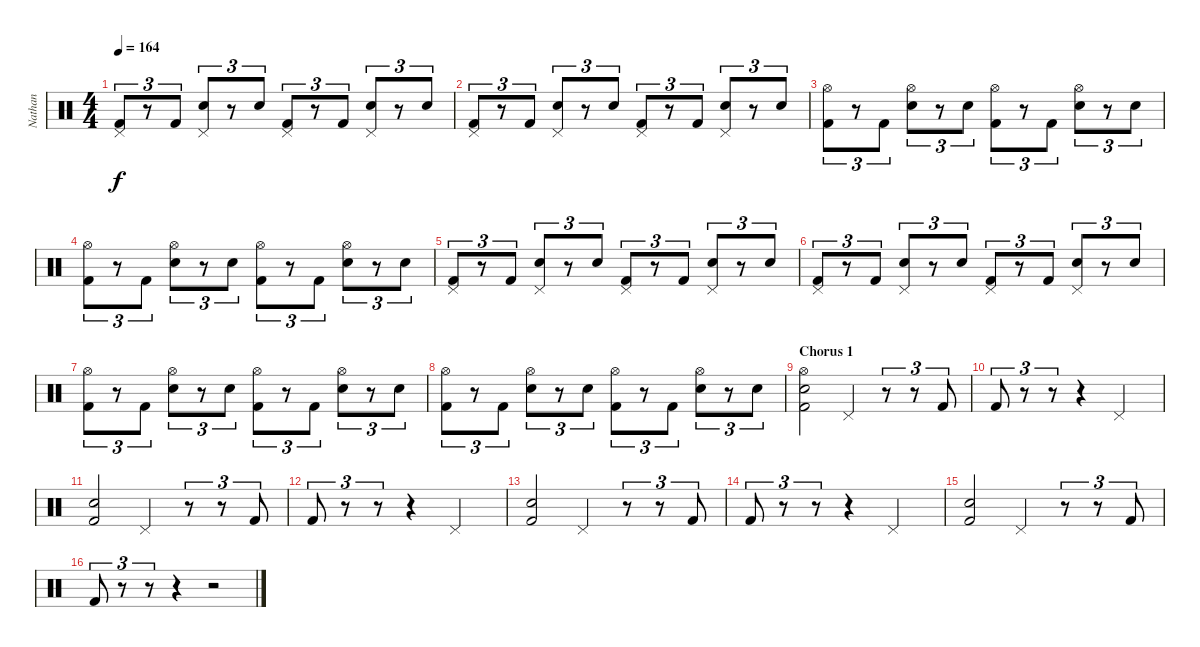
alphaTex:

\track ("Nathan" "Nathan") {instrument percussion}
\staff {score}
\articulation defaults
\ts (4 4)
\tempo 164
\clef neutral
\ks c
("Pedal Hi-Hat (hit)" "Kick (hit) 2").8{tu (3 2) dy f} r.8{tu (3 2)} "Kick (hit) 2".8{tu (3 2)} ("Pedal Hi-Hat (hit)" "Snare (hit) 2").8{tu (3 2)} r.8{tu (3 2)} "Snare (hit) 2".8{tu (3 2)} ("Pedal Hi-Hat (hit)" "Kick (hit) 2").8{tu (3 2)} r.8{tu (3 2)} "Kick (hit) 2".8{tu (3 2)} ("Pedal Hi-Hat (hit)" "Snare (hit) 2").8{tu (3 2)} r.8{tu (3 2)} "Snare (hit) 2".8{tu (3 2)} |
("Pedal Hi-Hat (hit)" "Kick (hit) 2").8{tu (3 2)} r.8{tu (3 2)} "Kick (hit) 2".8{tu (3 2)} ("Pedal Hi-Hat (hit)" "Snare (hit) 2").8{tu (3 2)} r.8{tu (3 2)} "Snare (hit) 2".8{tu (3 2)} ("Pedal Hi-Hat (hit)" "Kick (hit) 2").8{tu (3 2)} r.8{tu (3 2)} "Kick (hit) 2".8{tu (3 2)} ("Pedal Hi-Hat (hit)" "Snare (hit) 2").8{tu (3 2)} r.8{tu (3 2)} "Snare (hit) 2".8{tu (3 2)} |
("Hi-Hat (open)" "Kick (hit) 2").8{tu (3 2)} r.8{tu (3 2)} "Kick (hit) 2".8{tu (3 2)} ("Hi-Hat (open)" "Snare (hit) 2").8{tu (3 2)} r.8{tu (3 2)} "Snare (hit) 2".8{tu (3 2)} ("Hi-Hat (open)" "Kick (hit) 2").8{tu (3 2)} r.8{tu (3 2)} "Kick (hit) 2".8{tu (3 2)} ("Hi-Hat (open)" "Snare (hit) 2").8{tu (3 2)} r.8{tu (3 2)} "Snare (hit) 2".8{tu (3 2)} |
("Hi-Hat (open)" "Kick (hit) 2").8{tu (3 2)} r.8{tu (3 2)} "Kick (hit) 2".8{tu (3 2)} ("Hi-Hat (open)" "Snare (hit) 2").8{tu (3 2)} r.8{tu (3 2)} "Snare (hit) 2".8{tu (3 2)} ("Hi-Hat (open)" "Kick (hit) 2").8{tu (3 2)} r.8{tu (3 2)} "Kick (hit) 2".8{tu (3 2)} ("Hi-Hat (open)" "Snare (hit) 2").8{tu (3 2)} r.8{tu (3 2)} "Snare (hit) 2".8{tu (3 2)} |
("Pedal Hi-Hat (hit)" "Kick (hit) 2").8{tu (3 2)} r.8{tu (3 2)} "Kick (hit) 2".8{tu (3 2)} ("Pedal Hi-Hat (hit)" "Snare (hit) 2").8{tu (3 2)} r.8{tu (3 2)} "Snare (hit) 2".8{tu (3 2)} ("Pedal Hi-Hat (hit)" "Kick (hit) 2").8{tu (3 2)} r.8{tu (3 2)} "Kick (hit) 2".8{tu (3 2)} ("Pedal Hi-Hat (hit)" "Snare (hit) 2").8{tu (3 2)} r.8{tu (3 2)} "Snare (hit) 2".8{tu (3 2)} |
("Pedal Hi-Hat (hit)" "Kick (hit) 2").8{tu (3 2)} r.8{tu (3 2)} "Kick (hit) 2".8{tu (3 2)} ("Pedal Hi-Hat (hit)" "Snare (hit) 2").8{tu (3 2)} r.8{tu (3 2)} "Snare (hit) 2".8{tu (3 2)} ("Pedal Hi-Hat (hit)" "Kick (hit) 2").8{tu (3 2)} r.8{tu (3 2)} "Kick (hit) 2".8{tu (3 2)} ("Pedal Hi-Hat (hit)" "Snare (hit) 2").8{tu (3 2)} r.8{tu (3 2)} "Snare (hit) 2".8{tu (3 2)} |
("Hi-Hat (open)" "Kick (hit) 2").8{tu (3 2)} r.8{tu (3 2)} "Kick (hit) 2".8{tu (3 2)} ("Hi-Hat (open)" "Snare (hit) 2").8{tu (3 2)} r.8{tu (3 2)} "Snare (hit) 2".8{tu (3 2)} ("Hi-Hat (open)" "Kick (hit) 2").8{tu (3 2)} r.8{tu (3 2)} "Kick (hit) 2".8{tu (3 2)} ("Hi-Hat (open)" "Snare (hit) 2").8{tu (3 2)} r.8{tu (3 2)} "Snare (hit) 2".8{tu (3 2)} |
("Hi-Hat (open)" "Kick (hit) 2").8{tu (3 2)} r.8{tu (3 2)} "Kick (hit) 2".8{tu (3 2)} ("Hi-Hat (open)" "Snare (hit) 2").8{tu (3 2)} r.8{tu (3 2)} "Snare (hit) 2".8{tu (3 2)} ("Hi-Hat (open)" "Kick (hit) 2").8{tu (3 2)} r.8{tu (3 2)} "Kick (hit) 2".8{tu (3 2)} ("Hi-Hat (open)" "Snare (hit) 2").8{tu (3 2)} r.8{tu (3 2)} "Snare (hit) 2".8{tu (3 2)} |
\section ("" "Chorus 1")
("Hi-Hat (open)" "Snare (hit) 2" "Kick (hit) 2").2 "Pedal Hi-Hat (hit)".4 r.8{tu (3 2)} r.8{tu (3 2)} "Kick (hit) 2".8{tu (3 2)} |
"Kick (hit) 2".8{tu (3 2)} r.8{tu (3 2)} r.8{tu (3 2)} r.4 "Pedal Hi-Hat (hit)".2 |
("Snare (hit) 2" "Kick (hit) 2").2 "Pedal Hi-Hat (hit)".4 r.8{tu (3 2)} r.8{tu (3 2)} "Kick (hit) 2".8{tu (3 2)} |
"Kick (hit) 2".8{tu (3 2)} r.8{tu (3 2)} r.8{tu (3 2)} r.4 "Pedal Hi-Hat (hit)".2 |
("Snare (hit) 2" "Kick (hit) 2").2 "Pedal Hi-Hat (hit)".4 r.8{tu (3 2)} r.8{tu (3 2)} "Kick (hit) 2".8{tu (3 2)} |
"Kick (hit) 2".8{tu (3 2)} r.8{tu (3 2)} r.8{tu (3 2)} r.4 "Pedal Hi-Hat (hit)".2 |
("Snare (hit) 2" "Kick (hit) 2").2 "Pedal Hi-Hat (hit)".4 r.8{tu (3 2)} r.8{tu (3 2)} "Kick (hit) 2".8{tu (3 2)} |
"Kick (hit) 2".8{tu (3 2)} r.8{tu (3 2)} r.8{tu (3 2)} r.4 r.2
